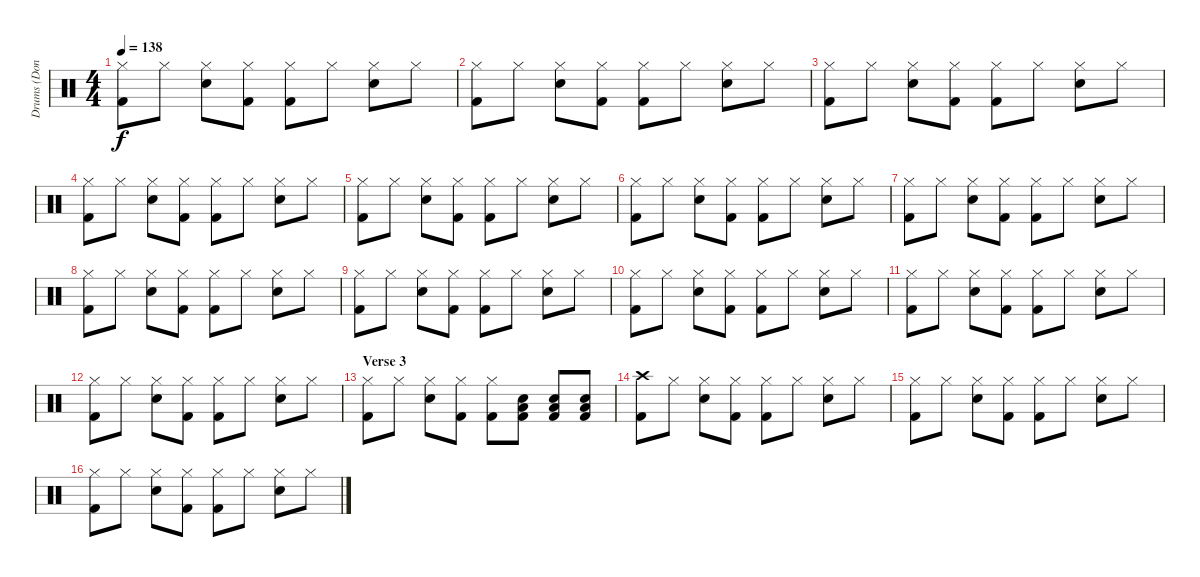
\track ("Drums (Don Henley)" "Drums (Don") {instrument percussion}
\staff {score}
\articulation defaults
\ts (4 4)
\tempo 138
\clef neutral
\ks c
("Hi-Hat (closed)" "Kick (hit) 2").8{dy f} "Hi-Hat (closed)".8 ("Hi-Hat (closed)" "Snare (hit) 2").8 ("Hi-Hat (closed)" "Kick (hit) 2").8 ("Hi-Hat (closed)" "Kick (hit) 2").8 "Hi-Hat (closed)".8 ("Hi-Hat (closed)" "Snare (hit) 2").8 "Hi-Hat (closed)".8 |
("Hi-Hat (closed)" "Kick (hit) 2").8 "Hi-Hat (closed)".8 ("Hi-Hat (closed)" "Snare (hit) 2").8 ("Hi-Hat (closed)" "Kick (hit) 2").8 ("Hi-Hat (closed)" "Kick (hit) 2").8 "Hi-Hat (closed)".8 ("Hi-Hat (closed)" "Snare (hit) 2").8 "Hi-Hat (closed)".8 |
("Hi-Hat (closed)" "Kick (hit) 2").8 "Hi-Hat (closed)".8 ("Hi-Hat (closed)" "Snare (hit) 2").8 ("Hi-Hat (closed)" "Kick (hit) 2").8 ("Hi-Hat (closed)" "Kick (hit) 2").8 "Hi-Hat (closed)".8 ("Hi-Hat (closed)" "Snare (hit) 2").8 "Hi-Hat (closed)".8 |
("Hi-Hat (closed)" "Kick (hit) 2").8 "Hi-Hat (closed)".8 ("Hi-Hat (closed)" "Snare (hit) 2").8 ("Hi-Hat (closed)" "Kick (hit) 2").8 ("Hi-Hat (closed)" "Kick (hit) 2").8 "Hi-Hat (closed)".8 ("Hi-Hat (closed)" "Snare (hit) 2").8 "Hi-Hat (closed)".8 |
("Hi-Hat (closed)" "Kick (hit) 2").8 "Hi-Hat (closed)".8 ("Hi-Hat (closed)" "Snare (hit) 2").8 ("Hi-Hat (closed)" "Kick (hit) 2").8 ("Hi-Hat (closed)" "Kick (hit) 2").8 "Hi-Hat (closed)".8 ("Hi-Hat (closed)" "Snare (hit) 2").8 "Hi-Hat (closed)".8 |
("Hi-Hat (closed)" "Kick (hit) 2").8 "Hi-Hat (closed)".8 ("Hi-Hat (closed)" "Snare (hit) 2").8 ("Hi-Hat (closed)" "Kick (hit) 2").8 ("Hi-Hat (closed)" "Kick (hit) 2").8 "Hi-Hat (closed)".8 ("Hi-Hat (closed)" "Snare (hit) 2").8 "Hi-Hat (closed)".8 |
("Hi-Hat (closed)" "Kick (hit) 2").8 "Hi-Hat (closed)".8 ("Hi-Hat (closed)" "Snare (hit) 2").8 ("Hi-Hat (closed)" "Kick (hit) 2").8 ("Hi-Hat (closed)" "Kick (hit) 2").8 "Hi-Hat (closed)".8 ("Hi-Hat (closed)" "Snare (hit) 2").8 "Hi-Hat (closed)".8 |
("Hi-Hat (closed)" "Kick (hit) 2").8 "Hi-Hat (closed)".8 ("Hi-Hat (closed)" "Snare (hit) 2").8 ("Hi-Hat (closed)" "Kick (hit) 2").8 ("Hi-Hat (closed)" "Kick (hit) 2").8 "Hi-Hat (closed)".8 ("Hi-Hat (closed)" "Snare (hit) 2").8 "Hi-Hat (closed)".8 |
("Hi-Hat (closed)" "Kick (hit) 2").8 "Hi-Hat (closed)".8 ("Hi-Hat (closed)" "Snare (hit) 2").8 ("Hi-Hat (closed)" "Kick (hit) 2").8 ("Hi-Hat (closed)" "Kick (hit) 2").8 "Hi-Hat (closed)".8 ("Hi-Hat (closed)" "Snare (hit) 2").8 "Hi-Hat (closed)".8 |
("Hi-Hat (closed)" "Kick (hit) 2").8 "Hi-Hat (closed)".8 ("Hi-Hat (closed)" "Snare (hit) 2").8 ("Hi-Hat (closed)" "Kick (hit) 2").8 ("Hi-Hat (closed)" "Kick (hit) 2").8 "Hi-Hat (closed)".8 ("Hi-Hat (closed)" "Snare (hit) 2").8 "Hi-Hat (closed)".8 |
("Hi-Hat (closed)" "Kick (hit) 2").8 "Hi-Hat (closed)".8 ("Hi-Hat (closed)" "Snare (hit) 2").8 ("Hi-Hat (closed)" "Kick (hit) 2").8 ("Hi-Hat (closed)" "Kick (hit) 2").8 "Hi-Hat (closed)".8 ("Hi-Hat (closed)" "Snare (hit) 2").8 "Hi-Hat (closed)".8 |
("Hi-Hat (closed)" "Kick (hit) 2").8 "Hi-Hat (closed)".8 ("Hi-Hat (closed)" "Snare (hit) 2").8 ("Hi-Hat (closed)" "Kick (hit) 2").8 ("Hi-Hat (closed)" "Kick (hit) 2").8 "Hi-Hat (closed)".8 ("Hi-Hat (closed)" "Snare (hit) 2").8 "Hi-Hat (closed)".8 |
\section ("" "Verse 3")
("Hi-Hat (closed)" "Kick (hit) 2").8 "Hi-Hat (closed)".8 ("Hi-Hat (closed)" "Snare (hit) 2").8 ("Hi-Hat (closed)" "Kick (hit) 2").8 ("Hi-Hat (closed)" "Kick (hit) 2").8 ("Low Floor Tom (hit)" "Snare (hit) 2" "Kick (hit) 2").8 ("Low Floor Tom (hit)" "Snare (hit) 2" "Kick (hit) 2").8 ("Low Floor Tom (hit)" "Snare (hit) 2" "Kick (hit) 2").8 |
("Crash high (hit)" "Kick (hit) 2").8 "Hi-Hat (closed)".8 ("Hi-Hat (closed)" "Snare (hit) 2").8 ("Hi-Hat (closed)" "Kick (hit) 2").8 ("Hi-Hat (closed)" "Kick (hit) 2").8 "Hi-Hat (closed)".8 ("Hi-Hat (closed)" "Snare (hit) 2").8 "Hi-Hat (closed)".8 |
("Hi-Hat (closed)" "Kick (hit) 2").8 "Hi-Hat (closed)".8 ("Hi-Hat (closed)" "Snare (hit) 2").8 ("Hi-Hat (closed)" "Kick (hit) 2").8 ("Hi-Hat (closed)" "Kick (hit) 2").8 "Hi-Hat (closed)".8 ("Hi-Hat (closed)" "Snare (hit) 2").8 "Hi-Hat (closed)".8 |
("Hi-Hat (closed)" "Kick (hit) 2").8 "Hi-Hat (closed)".8 ("Hi-Hat (closed)" "Snare (hit) 2").8 ("Hi-Hat (closed)" "Kick (hit) 2").8 ("Hi-Hat (closed)" "Kick (hit) 2").8 "Hi-Hat (closed)".8 ("Hi-Hat (closed)" "Snare (hit) 2").8 "Hi-Hat (closed)".8
